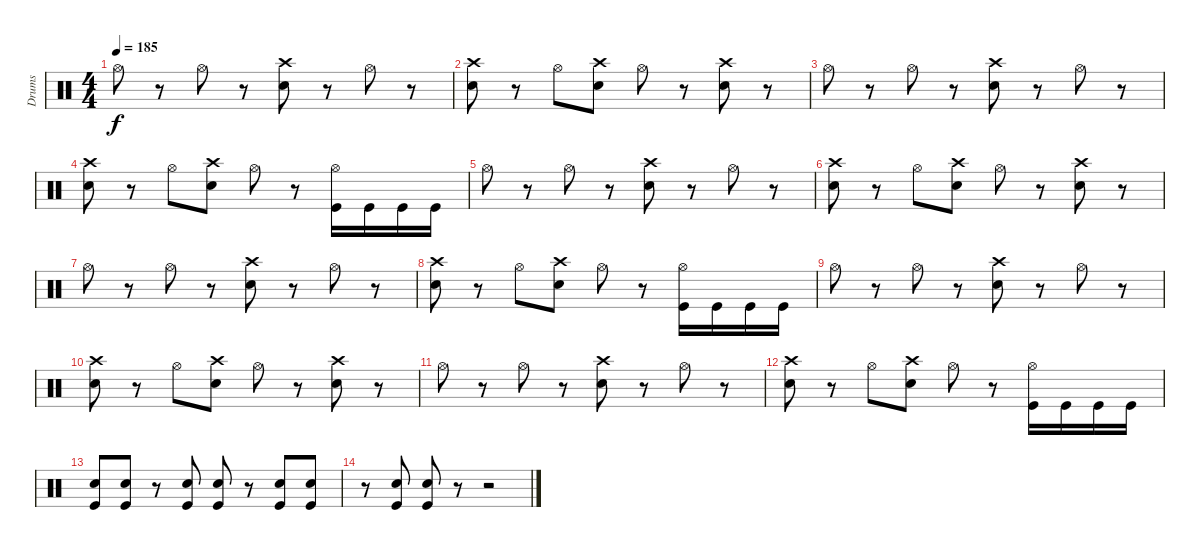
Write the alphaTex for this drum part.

\track ("Drums" "Drums") {instrument percussion}
\staff {score}
\articulation defaults
\ts (4 4)
\tempo 185
\clef neutral
\ks c "Hi-Hat (open)".8{dy f}
r.8 "Hi-Hat (open)".8 r.8 ("Crash high (hit)" "Electric Snare (hit)").8 r.8 "Hi-Hat (open)".8 r.8 |
("Crash high (hit)" "Electric Snare (hit)").8 r.8 "Hi-Hat (open)".8 ("Crash high (hit)" "Electric Snare (hit)").8 "Hi-Hat (open)".8 r.8 ("Crash high (hit)" "Electric Snare (hit)").8 r.8 |
"Hi-Hat (open)".8 r.8 "Hi-Hat (open)".8 r.8 ("Crash high (hit)" "Electric Snare (hit)").8 r.8 "Hi-Hat (open)".8 r.8 |
("Crash high (hit)" "Electric Snare (hit)").8 r.8 "Hi-Hat (open)".8 ("Crash high (hit)" "Electric Snare (hit)").8 "Hi-Hat (open)".8 r.8 ("Hi-Hat (open)" "Kick (hit)").16 "Kick (hit)".16 "Kick (hit)".16 "Kick (hit)".16 |
"Hi-Hat (open)".8 r.8 "Hi-Hat (open)".8 r.8 ("Crash high (hit)" "Electric Snare (hit)").8 r.8 "Hi-Hat (open)".8 r.8 |
("Crash high (hit)" "Electric Snare (hit)").8 r.8 "Hi-Hat (open)".8 ("Crash high (hit)" "Electric Snare (hit)").8 "Hi-Hat (open)".8 r.8 ("Crash high (hit)" "Electric Snare (hit)").8 r.8 |
"Hi-Hat (open)".8 r.8 "Hi-Hat (open)".8 r.8 ("Crash high (hit)" "Electric Snare (hit)").8 r.8 "Hi-Hat (open)".8 r.8 |
("Crash high (hit)" "Electric Snare (hit)").8 r.8 "Hi-Hat (open)".8 ("Crash high (hit)" "Electric Snare (hit)").8 "Hi-Hat (open)".8 r.8 ("Hi-Hat (open)" "Kick (hit)").16 "Kick (hit)".16 "Kick (hit)".16 "Kick (hit)".16 |
"Hi-Hat (open)".8 r.8 "Hi-Hat (open)".8 r.8 ("Crash high (hit)" "Electric Snare (hit)").8 r.8 "Hi-Hat (open)".8 r.8 |
("Crash high (hit)" "Electric Snare (hit)").8 r.8 "Hi-Hat (open)".8 ("Crash high (hit)" "Electric Snare (hit)").8 "Hi-Hat (open)".8 r.8 ("Crash high (hit)" "Electric Snare (hit)").8 r.8 |
"Hi-Hat (open)".8 r.8 "Hi-Hat (open)".8 r.8 ("Crash high (hit)" "Electric Snare (hit)").8 r.8 "Hi-Hat (open)".8 r.8 |
("Crash high (hit)" "Electric Snare (hit)").8 r.8 "Hi-Hat (open)".8 ("Crash high (hit)" "Electric Snare (hit)").8 "Hi-Hat (open)".8 r.8 ("Hi-Hat (open)" "Kick (hit)").16 "Kick (hit)".16 "Kick (hit)".16 "Kick (hit)".16 |
("Electric Snare (hit)" "Kick (hit)").8 ("Electric Snare (hit)" "Kick (hit)").8 r.8 ("Electric Snare (hit)" "Kick (hit)").8 ("Electric Snare (hit)" "Kick (hit)").8 r.8 ("Electric Snare (hit)" "Kick (hit)").8 ("Electric Snare (hit)" "Kick (hit)").8 |
r.8 ("Electric Snare (hit)" "Kick (hit)").8 ("Electric Snare (hit)" "Kick (hit)").8 r.8 r.2
